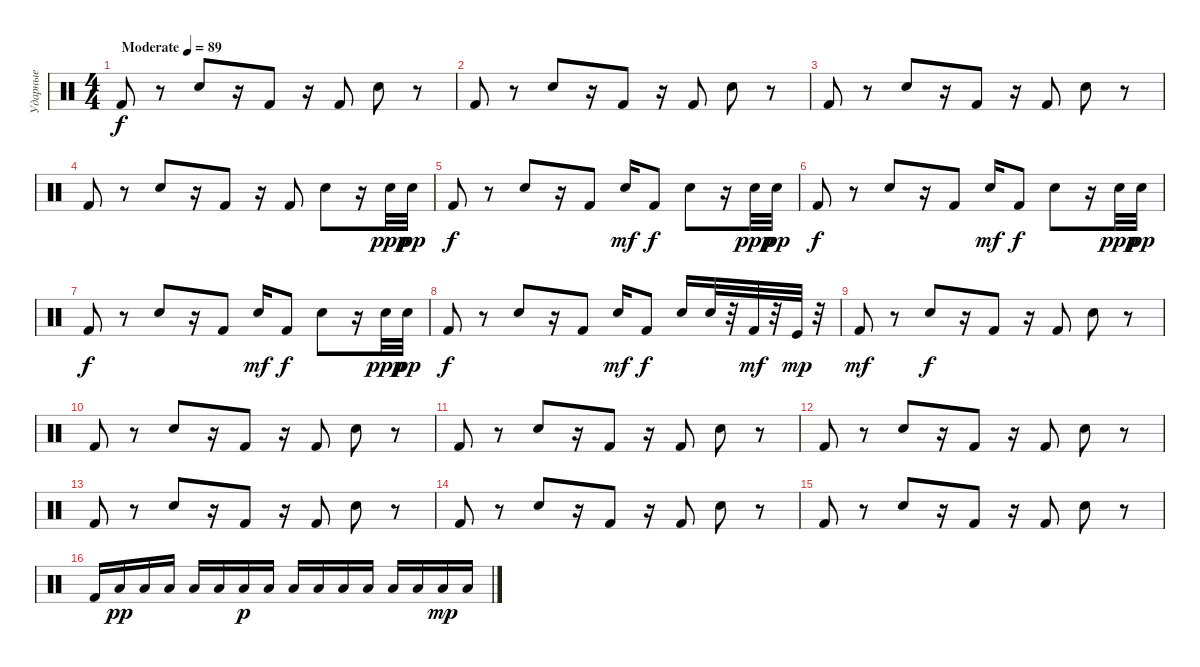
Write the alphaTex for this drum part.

\track ("Ударные " "Ударные ") {instrument percussion}
\staff {score}
\articulation defaults
\ts (4 4)
\tempo (89 "Moderate")
\clef neutral
\ks c "Kick (hit) 2".8{dy f}
r.8 "Snare (hit) 2".8 r.16 "Kick (hit) 2".8 r.16 "Kick (hit) 2".8 "Snare (hit) 2".8 r.8 |
"Kick (hit) 2".8 r.8 "Snare (hit) 2".8 r.16 "Kick (hit) 2".8 r.16 "Kick (hit) 2".8 "Snare (hit) 2".8 r.8 |
"Kick (hit) 2".8 r.8 "Snare (hit) 2".8 r.16 "Kick (hit) 2".8 r.16 "Kick (hit) 2".8 "Snare (hit) 2".8 r.8 |
"Kick (hit) 2".8 r.8 "Snare (hit) 2".8 r.16 "Kick (hit) 2".8 r.16 "Kick (hit) 2".8 "Snare (hit) 2".8 r.16 "Snare (hit) 2".32{dy ppp} "Snare (hit) 2".32{dy pp} |
"Kick (hit) 2".8{dy f} r.8 "Snare (hit) 2".8 r.16 "Kick (hit) 2".8 "Snare (hit) 2".16{dy mf} "Kick (hit) 2".8{dy f} "Snare (hit) 2".8 r.16 "Snare (hit) 2".32{dy ppp} "Snare (hit) 2".32{dy pp} |
"Kick (hit) 2".8{dy f} r.8 "Snare (hit) 2".8 r.16 "Kick (hit) 2".8 "Snare (hit) 2".16{dy mf} "Kick (hit) 2".8{dy f} "Snare (hit) 2".8 r.16 "Snare (hit) 2".32{dy ppp} "Snare (hit) 2".32{dy pp} |
"Kick (hit) 2".8{dy f} r.8 "Snare (hit) 2".8 r.16 "Kick (hit) 2".8 "Snare (hit) 2".16{dy mf} "Kick (hit) 2".8{dy f} "Snare (hit) 2".8 r.16 "Snare (hit) 2".32{dy ppp} "Snare (hit) 2".32{dy pp} |
"Kick (hit) 2".8{dy f} r.8 "Snare (hit) 2".8 r.16 "Kick (hit) 2".8 "Snare (hit) 2".16{dy mf} "Kick (hit) 2".8{dy f} "Snare (hit) 2".16 "Snare (hit) 2".32 r.32 "Kick (hit) 2".32{dy mf} r.32 "Kick (hit)".32{dy mp} r.32 |
"Kick (hit) 2".8{dy mf} r.8 "Snare (hit) 2".8{dy f} r.16 "Kick (hit) 2".8 r.16 "Kick (hit) 2".8 "Snare (hit) 2".8 r.8 |
"Kick (hit) 2".8 r.8 "Snare (hit) 2".8 r.16 "Kick (hit) 2".8 r.16 "Kick (hit) 2".8 "Snare (hit) 2".8 r.8 |
"Kick (hit) 2".8 r.8 "Snare (hit) 2".8 r.16 "Kick (hit) 2".8 r.16 "Kick (hit) 2".8 "Snare (hit) 2".8 r.8 |
"Kick (hit) 2".8 r.8 "Snare (hit) 2".8 r.16 "Kick (hit) 2".8 r.16 "Kick (hit) 2".8 "Snare (hit) 2".8 r.8 |
"Kick (hit) 2".8 r.8 "Snare (hit) 2".8 r.16 "Kick (hit) 2".8 r.16 "Kick (hit) 2".8 "Snare (hit) 2".8 r.8 |
"Kick (hit) 2".8 r.8 "Snare (hit) 2".8 r.16 "Kick (hit) 2".8 r.16 "Kick (hit) 2".8 "Snare (hit) 2".8 r.8 |
"Kick (hit) 2".8 r.8 "Snare (hit) 2".8 r.16 "Kick (hit) 2".8 r.16 "Kick (hit) 2".8 "Snare (hit) 2".8 r.8 |
"Kick (hit) 2".16 "Low Tom (hit)".16{dy pp} "Low Tom (hit)".16 "Low Tom (hit)".16 "Low Tom (hit)".16 "Low Tom (hit)".16 "Low Tom (hit)".16{dy p} "Low Tom (hit)".16 "Low Tom (hit)".16 "Low Tom (hit)".16 "Low Tom (hit)".16 "Low Tom (hit)".16 "Low Tom (hit)".16 "Low Tom (hit)".16 "Low Tom (hit)".16{dy mp} "Low Tom (hit)".16
